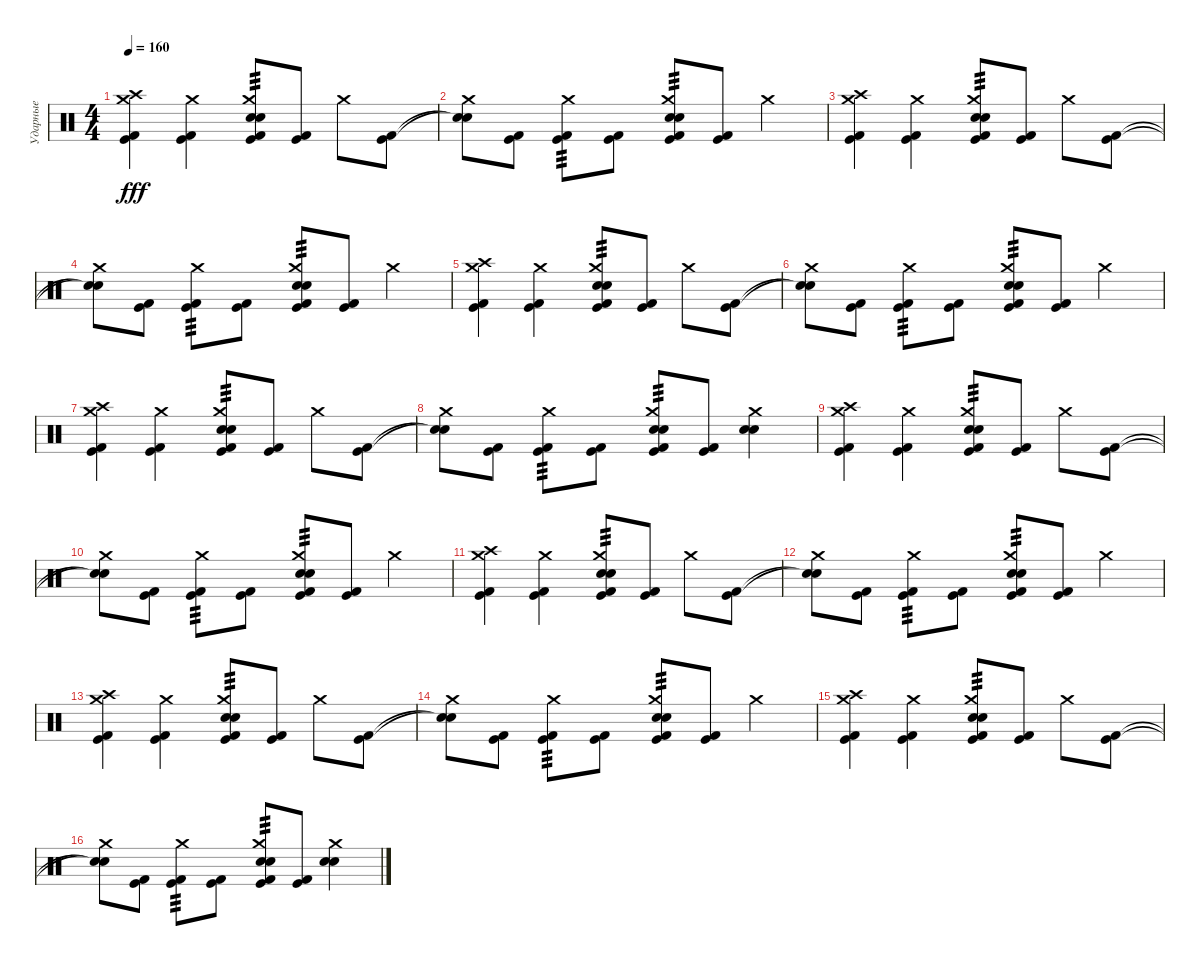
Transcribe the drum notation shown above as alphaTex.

\track ("Ударные" "Ударные") {instrument percussion}
\staff {score}
\articulation defaults
\ts (4 4)
\tempo 160
\clef neutral
\ks c
("Kick (hit) 2" "Kick (hit)" "Crash high (hit)" "Crash medium (hit)").4{dy fff} ("Kick (hit) 2" "Kick (hit)" "Crash medium (hit)").4 ("Kick (hit) 2" "Kick (hit)" "Snare (hit) 2" "Electric Snare (hit)" "Crash medium (hit)").8{tp 3} ("Kick (hit) 2" "Kick (hit)").8 "Crash medium (hit)".8 ("Kick (hit) 2" "Kick (hit)").8 |
("Snare (hit)"{t} "Snare (hit)"{t} "Crash medium (hit)").8 ("Kick (hit) 2" "Kick (hit)").8 ("Kick (hit) 2" "Kick (hit)" "Crash medium (hit)").8{tp 3} ("Kick (hit) 2" "Kick (hit)").8 ("Kick (hit) 2" "Kick (hit)" "Snare (hit) 2" "Electric Snare (hit)" "Crash medium (hit)").8{tp 3} ("Kick (hit) 2" "Kick (hit)").8 "Crash medium (hit)".4 |
("Kick (hit) 2" "Kick (hit)" "Crash high (hit)" "Crash medium (hit)").4 ("Kick (hit) 2" "Kick (hit)" "Crash medium (hit)").4 ("Kick (hit) 2" "Kick (hit)" "Snare (hit) 2" "Electric Snare (hit)" "Crash medium (hit)").8{tp 3} ("Kick (hit) 2" "Kick (hit)").8 "Crash medium (hit)".8 ("Kick (hit) 2" "Kick (hit)").8 |
("Snare (hit)"{t} "Snare (hit)"{t} "Crash medium (hit)").8 ("Kick (hit) 2" "Kick (hit)").8 ("Kick (hit) 2" "Kick (hit)" "Crash medium (hit)").8{tp 3} ("Kick (hit) 2" "Kick (hit)").8 ("Kick (hit) 2" "Kick (hit)" "Snare (hit) 2" "Electric Snare (hit)" "Crash medium (hit)").8{tp 3} ("Kick (hit) 2" "Kick (hit)").8 "Crash medium (hit)".4 |
("Kick (hit) 2" "Kick (hit)" "Crash high (hit)" "Crash medium (hit)").4 ("Kick (hit) 2" "Kick (hit)" "Crash medium (hit)").4 ("Kick (hit) 2" "Kick (hit)" "Snare (hit) 2" "Electric Snare (hit)" "Crash medium (hit)").8{tp 3} ("Kick (hit) 2" "Kick (hit)").8 "Crash medium (hit)".8 ("Kick (hit) 2" "Kick (hit)").8 |
("Snare (hit)"{t} "Snare (hit)"{t} "Crash medium (hit)").8 ("Kick (hit) 2" "Kick (hit)").8 ("Kick (hit) 2" "Kick (hit)" "Crash medium (hit)").8{tp 3} ("Kick (hit) 2" "Kick (hit)").8 ("Kick (hit) 2" "Kick (hit)" "Snare (hit) 2" "Electric Snare (hit)" "Crash medium (hit)").8{tp 3} ("Kick (hit) 2" "Kick (hit)").8 "Crash medium (hit)".4 |
("Kick (hit) 2" "Kick (hit)" "Crash high (hit)" "Crash medium (hit)").4 ("Kick (hit) 2" "Kick (hit)" "Crash medium (hit)").4 ("Kick (hit) 2" "Kick (hit)" "Snare (hit) 2" "Electric Snare (hit)" "Crash medium (hit)").8{tp 3} ("Kick (hit) 2" "Kick (hit)").8 "Crash medium (hit)".8 ("Kick (hit) 2" "Kick (hit)").8 |
("Snare (hit)"{t} "Snare (hit)"{t} "Crash medium (hit)").8 ("Kick (hit) 2" "Kick (hit)").8 ("Kick (hit) 2" "Kick (hit)" "Crash medium (hit)").8{tp 3} ("Kick (hit) 2" "Kick (hit)").8 ("Kick (hit) 2" "Kick (hit)" "Snare (hit) 2" "Electric Snare (hit)" "Crash medium (hit)").8{tp 3} ("Kick (hit) 2" "Kick (hit)").8 ("Snare (hit) 2" "Electric Snare (hit)" "Crash medium (hit)").4 |
("Kick (hit) 2" "Kick (hit)" "Crash high (hit)" "Crash medium (hit)").4 ("Kick (hit) 2" "Kick (hit)" "Crash medium (hit)").4 ("Kick (hit) 2" "Kick (hit)" "Snare (hit) 2" "Electric Snare (hit)" "Crash medium (hit)").8{tp 3} ("Kick (hit) 2" "Kick (hit)").8 "Crash medium (hit)".8 ("Kick (hit) 2" "Kick (hit)").8 |
("Snare (hit)"{t} "Snare (hit)"{t} "Crash medium (hit)").8 ("Kick (hit) 2" "Kick (hit)").8 ("Kick (hit) 2" "Kick (hit)" "Crash medium (hit)").8{tp 3} ("Kick (hit) 2" "Kick (hit)").8 ("Kick (hit) 2" "Kick (hit)" "Snare (hit) 2" "Electric Snare (hit)" "Crash medium (hit)").8{tp 3} ("Kick (hit) 2" "Kick (hit)").8 "Crash medium (hit)".4 |
("Kick (hit) 2" "Kick (hit)" "Crash high (hit)" "Crash medium (hit)").4 ("Kick (hit) 2" "Kick (hit)" "Crash medium (hit)").4 ("Kick (hit) 2" "Kick (hit)" "Snare (hit) 2" "Electric Snare (hit)" "Crash medium (hit)").8{tp 3} ("Kick (hit) 2" "Kick (hit)").8 "Crash medium (hit)".8 ("Kick (hit) 2" "Kick (hit)").8 |
("Snare (hit)"{t} "Snare (hit)"{t} "Crash medium (hit)").8 ("Kick (hit) 2" "Kick (hit)").8 ("Kick (hit) 2" "Kick (hit)" "Crash medium (hit)").8{tp 3} ("Kick (hit) 2" "Kick (hit)").8 ("Kick (hit) 2" "Kick (hit)" "Snare (hit) 2" "Electric Snare (hit)" "Crash medium (hit)").8{tp 3} ("Kick (hit) 2" "Kick (hit)").8 "Crash medium (hit)".4 |
("Kick (hit) 2" "Kick (hit)" "Crash high (hit)" "Crash medium (hit)").4 ("Kick (hit) 2" "Kick (hit)" "Crash medium (hit)").4 ("Kick (hit) 2" "Kick (hit)" "Snare (hit) 2" "Electric Snare (hit)" "Crash medium (hit)").8{tp 3} ("Kick (hit) 2" "Kick (hit)").8 "Crash medium (hit)".8 ("Kick (hit) 2" "Kick (hit)").8 |
("Snare (hit)"{t} "Snare (hit)"{t} "Crash medium (hit)").8 ("Kick (hit) 2" "Kick (hit)").8 ("Kick (hit) 2" "Kick (hit)" "Crash medium (hit)").8{tp 3} ("Kick (hit) 2" "Kick (hit)").8 ("Kick (hit) 2" "Kick (hit)" "Snare (hit) 2" "Electric Snare (hit)" "Crash medium (hit)").8{tp 3} ("Kick (hit) 2" "Kick (hit)").8 "Crash medium (hit)".4 |
("Kick (hit) 2" "Kick (hit)" "Crash high (hit)" "Crash medium (hit)").4 ("Kick (hit) 2" "Kick (hit)" "Crash medium (hit)").4 ("Kick (hit) 2" "Kick (hit)" "Snare (hit) 2" "Electric Snare (hit)" "Crash medium (hit)").8{tp 3} ("Kick (hit) 2" "Kick (hit)").8 "Crash medium (hit)".8 ("Kick (hit) 2" "Kick (hit)").8 |
("Snare (hit)"{t} "Snare (hit)"{t} "Crash medium (hit)").8 ("Kick (hit) 2" "Kick (hit)").8 ("Kick (hit) 2" "Kick (hit)" "Crash medium (hit)").8{tp 3} ("Kick (hit) 2" "Kick (hit)").8 ("Kick (hit) 2" "Kick (hit)" "Snare (hit) 2" "Electric Snare (hit)" "Crash medium (hit)").8{tp 3} ("Kick (hit) 2" "Kick (hit)").8 ("Snare (hit) 2" "Electric Snare (hit)" "Crash medium (hit)").4
